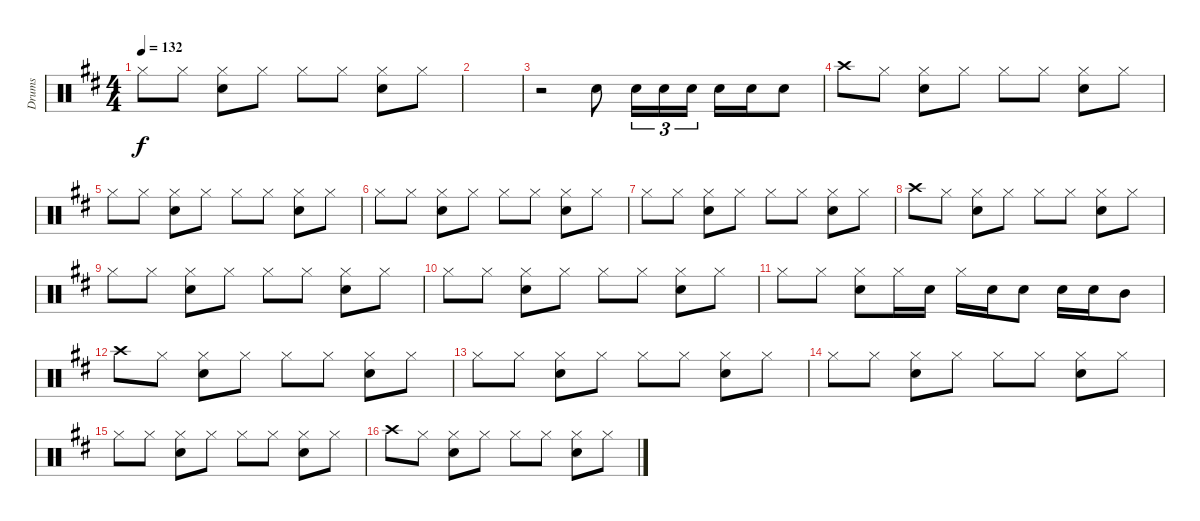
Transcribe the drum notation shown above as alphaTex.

\track ("Drums" "Drums") {instrument percussion}
\staff {score}
\articulation defaults
\ts (4 4)
\tempo 132
\clef neutral
\ks d "Hi-Hat (closed)".8{dy f} "Hi-Hat (closed)".8
("Hi-Hat (closed)" "Snare (hit) 2").8 "Hi-Hat (closed)".8 "Hi-Hat (closed)".8 "Hi-Hat (closed)".8 ("Hi-Hat (closed)" "Snare (hit) 2").8 "Hi-Hat (closed)".8 |
|
r.2 "Snare (hit) 2".8 "Snare (hit) 2".16{tu (3 2)} "Snare (hit) 2".16{tu (3 2)} "Snare (hit) 2".16{tu (3 2)} "Snare (hit) 2".16 "Snare (hit) 2".16 "Snare (hit) 2".8 |
"Crash high (hit)".8 "Hi-Hat (closed)".8 ("Hi-Hat (closed)" "Snare (hit) 2").8 "Hi-Hat (closed)".8 "Hi-Hat (closed)".8 "Hi-Hat (closed)".8 ("Hi-Hat (closed)" "Snare (hit) 2").8 "Hi-Hat (closed)".8 |
"Hi-Hat (closed)".8 "Hi-Hat (closed)".8 ("Hi-Hat (closed)" "Snare (hit) 2").8 "Hi-Hat (closed)".8 "Hi-Hat (closed)".8 "Hi-Hat (closed)".8 ("Hi-Hat (closed)" "Snare (hit) 2").8 "Hi-Hat (closed)".8 |
"Hi-Hat (closed)".8 "Hi-Hat (closed)".8 ("Hi-Hat (closed)" "Snare (hit) 2").8 "Hi-Hat (closed)".8 "Hi-Hat (closed)".8 "Hi-Hat (closed)".8 ("Hi-Hat (closed)" "Snare (hit) 2").8 "Hi-Hat (closed)".8 |
"Hi-Hat (closed)".8 "Hi-Hat (closed)".8 ("Hi-Hat (closed)" "Snare (hit) 2").8 "Hi-Hat (closed)".8 "Hi-Hat (closed)".8 "Hi-Hat (closed)".8 ("Hi-Hat (closed)" "Snare (hit) 2").8 "Hi-Hat (closed)".8 |
"Crash high (hit)".8 "Hi-Hat (closed)".8 ("Hi-Hat (closed)" "Snare (hit) 2").8 "Hi-Hat (closed)".8 "Hi-Hat (closed)".8 "Hi-Hat (closed)".8 ("Hi-Hat (closed)" "Snare (hit) 2").8 "Hi-Hat (closed)".8 |
"Hi-Hat (closed)".8 "Hi-Hat (closed)".8 ("Hi-Hat (closed)" "Snare (hit) 2").8 "Hi-Hat (closed)".8 "Hi-Hat (closed)".8 "Hi-Hat (closed)".8 ("Hi-Hat (closed)" "Snare (hit) 2").8 "Hi-Hat (closed)".8 |
"Hi-Hat (closed)".8 "Hi-Hat (closed)".8 ("Hi-Hat (closed)" "Snare (hit) 2").8 "Hi-Hat (closed)".8 "Hi-Hat (closed)".8 "Hi-Hat (closed)".8 ("Hi-Hat (closed)" "Snare (hit) 2").8 "Hi-Hat (closed)".8 |
"Hi-Hat (closed)".8 "Hi-Hat (closed)".8 ("Hi-Hat (closed)" "Snare (hit) 2").8 "Hi-Hat (closed)".16 "Snare (hit) 2".16 "Hi-Hat (closed)".16 "Snare (hit) 2".16 "Snare (hit) 2".8 "Snare (hit) 2".16 "Snare (hit) 2".16 "Mid Tom (hit)".8 |
"Crash high (hit)".8 "Hi-Hat (closed)".8 ("Hi-Hat (closed)" "Snare (hit) 2").8 "Hi-Hat (closed)".8 "Hi-Hat (closed)".8 "Hi-Hat (closed)".8 ("Hi-Hat (closed)" "Snare (hit) 2").8 "Hi-Hat (closed)".8 |
"Hi-Hat (closed)".8 "Hi-Hat (closed)".8 ("Hi-Hat (closed)" "Snare (hit) 2").8 "Hi-Hat (closed)".8 "Hi-Hat (closed)".8 "Hi-Hat (closed)".8 ("Hi-Hat (closed)" "Snare (hit) 2").8 "Hi-Hat (closed)".8 |
"Hi-Hat (closed)".8 "Hi-Hat (closed)".8 ("Hi-Hat (closed)" "Snare (hit) 2").8 "Hi-Hat (closed)".8 "Hi-Hat (closed)".8 "Hi-Hat (closed)".8 ("Hi-Hat (closed)" "Snare (hit) 2").8 "Hi-Hat (closed)".8 |
"Hi-Hat (closed)".8 "Hi-Hat (closed)".8 ("Hi-Hat (closed)" "Snare (hit) 2").8 "Hi-Hat (closed)".8 "Hi-Hat (closed)".8 "Hi-Hat (closed)".8 ("Hi-Hat (closed)" "Snare (hit) 2").8 "Hi-Hat (closed)".8 |
"Crash high (hit)".8 "Hi-Hat (closed)".8 ("Hi-Hat (closed)" "Snare (hit) 2").8 "Hi-Hat (closed)".8 "Hi-Hat (closed)".8 "Hi-Hat (closed)".8 ("Hi-Hat (closed)" "Snare (hit) 2").8 "Hi-Hat (closed)".8
